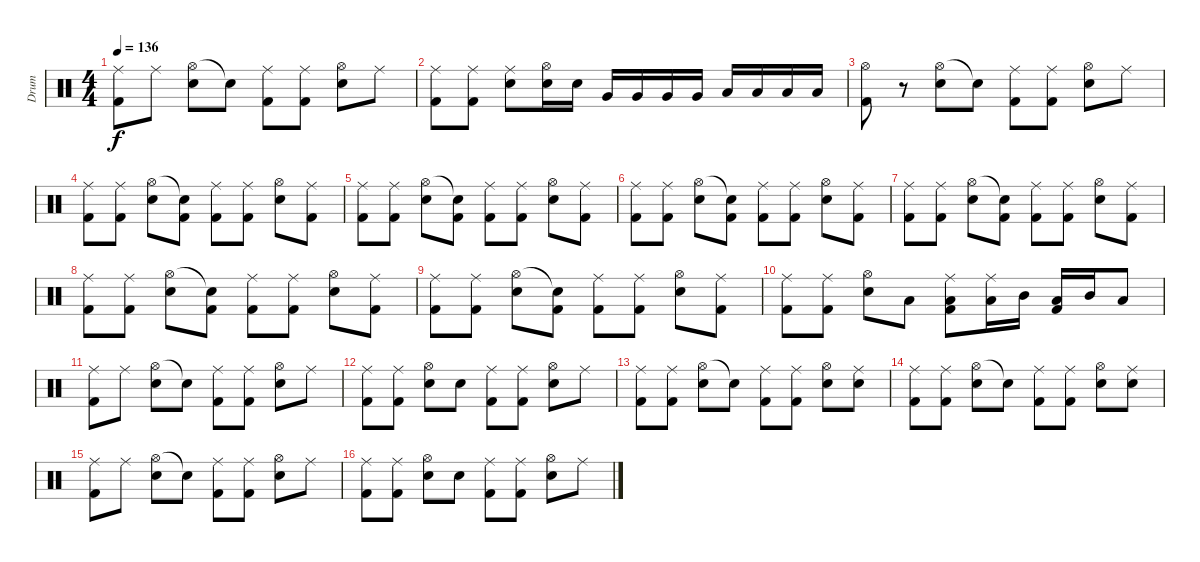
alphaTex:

\track ("Drum" "Drum") {instrument percussion}
\staff {score}
\articulation defaults
\ts (4 4)
\tempo 136
\clef neutral
\ks c
("Ride (middle)" "Kick (hit) 2").8{dy f} "Ride (middle)".8 ("Hi-Hat (open)" "Electric Snare (hit)").8 "Snare (hit)"{t}.8 ("Ride (middle)" "Kick (hit) 2").8 ("Ride (middle)" "Kick (hit) 2").8 ("Hi-Hat (open)" "Electric Snare (hit)").8 "Ride (middle)".8 |
("Ride (middle)" "Kick (hit) 2").8 ("Ride (middle)" "Kick (hit) 2").8 ("Ride (middle)" "Electric Snare (hit)").8 ("Hi-Hat (open)" "Electric Snare (hit)").16 "Electric Snare (hit)".16 "Very Low Tom (hit)".16 "Very Low Tom (hit)".16 "Very Low Tom (hit)".16 "Very Low Tom (hit)".16 "Low Tom (hit)".16 "Low Tom (hit)".16 "Low Tom (hit)".16 "Low Tom (hit)".16 |
("Hi-Hat (open)" "Kick (hit) 2").8 r.8 ("Hi-Hat (open)" "Electric Snare (hit)").8 "Snare (hit)"{t}.8 ("Ride (middle)" "Kick (hit) 2").8 ("Ride (middle)" "Kick (hit) 2").8 ("Hi-Hat (open)" "Electric Snare (hit)").8 "Ride (middle)".8 |
("Ride (middle)" "Kick (hit) 2").8 ("Ride (middle)" "Kick (hit) 2").8 ("Hi-Hat (open)" "Electric Snare (hit)").8 ("Snare (hit)"{t} "Kick (hit) 2").8 ("Ride (middle)" "Kick (hit) 2").8 ("Ride (middle)" "Kick (hit) 2").8 ("Hi-Hat (open)" "Electric Snare (hit)").8 ("Ride (middle)" "Kick (hit) 2").8 |
("Ride (middle)" "Kick (hit) 2").8 ("Ride (middle)" "Kick (hit) 2").8 ("Hi-Hat (open)" "Electric Snare (hit)").8 ("Snare (hit)"{t} "Kick (hit) 2").8 ("Ride (middle)" "Kick (hit) 2").8 ("Ride (middle)" "Kick (hit) 2").8 ("Hi-Hat (open)" "Electric Snare (hit)").8 ("Ride (middle)" "Kick (hit) 2").8 |
("Ride (middle)" "Kick (hit) 2").8 ("Ride (middle)" "Kick (hit) 2").8 ("Hi-Hat (open)" "Electric Snare (hit)").8 ("Snare (hit)"{t} "Kick (hit) 2").8 ("Ride (middle)" "Kick (hit) 2").8 ("Ride (middle)" "Kick (hit) 2").8 ("Hi-Hat (open)" "Electric Snare (hit)").8 ("Ride (middle)" "Kick (hit) 2").8 |
("Ride (middle)" "Kick (hit) 2").8 ("Ride (middle)" "Kick (hit) 2").8 ("Hi-Hat (open)" "Electric Snare (hit)").8 ("Snare (hit)"{t} "Kick (hit) 2").8 ("Ride (middle)" "Kick (hit) 2").8 ("Ride (middle)" "Kick (hit) 2").8 ("Hi-Hat (open)" "Electric Snare (hit)").8 ("Ride (middle)" "Kick (hit) 2").8 |
("Ride (middle)" "Kick (hit) 2").8 ("Ride (middle)" "Kick (hit) 2").8 ("Hi-Hat (open)" "Electric Snare (hit)").8 ("Snare (hit)"{t} "Kick (hit) 2").8 ("Ride (middle)" "Kick (hit) 2").8 ("Ride (middle)" "Kick (hit) 2").8 ("Hi-Hat (open)" "Electric Snare (hit)").8 ("Ride (middle)" "Kick (hit) 2").8 |
("Ride (middle)" "Kick (hit) 2").8 ("Ride (middle)" "Kick (hit) 2").8 ("Hi-Hat (open)" "Electric Snare (hit)").8 ("Snare (hit)"{t} "Kick (hit) 2").8 ("Ride (middle)" "Kick (hit) 2").8 ("Ride (middle)" "Kick (hit) 2").8 ("Hi-Hat (open)" "Electric Snare (hit)").8 ("Ride (middle)" "Kick (hit) 2").8 |
("Ride (middle)" "Kick (hit) 2").8 ("Ride (middle)" "Kick (hit) 2").8 ("Hi-Hat (open)" "Electric Snare (hit)").8 "Low Floor Tom (hit)".8 ("Ride (middle)" "Low Floor Tom (hit)" "Kick (hit) 2").8 ("Ride (middle)" "Low Tom (hit)").16 "Mid Tom (hit)".16 ("Low Tom (hit)" "Kick (hit) 2").16 "Mid Tom (hit)".16 "Low Floor Tom (hit)".8 |
("Ride (middle)" "Kick (hit) 2").8 "Ride (middle)".8 ("Hi-Hat (open)" "Electric Snare (hit)").8 "Snare (hit)"{t}.8 ("Ride (middle)" "Kick (hit) 2").8 ("Ride (middle)" "Kick (hit) 2").8 ("Hi-Hat (open)" "Electric Snare (hit)").8 "Ride (middle)".8 |
("Ride (middle)" "Kick (hit) 2").8 ("Ride (middle)" "Kick (hit) 2").8 ("Hi-Hat (open)" "Electric Snare (hit)").8 "Electric Snare (hit)".8 ("Ride (middle)" "Kick (hit) 2").8 ("Ride (middle)" "Kick (hit) 2").8 ("Hi-Hat (open)" "Electric Snare (hit)").8 "Ride (middle)".8 |
("Ride (middle)" "Kick (hit) 2").8 ("Ride (middle)" "Kick (hit) 2").8 ("Hi-Hat (open)" "Electric Snare (hit)").8 "Snare (hit)"{t}.8 ("Ride (middle)" "Kick (hit) 2").8 ("Ride (middle)" "Kick (hit) 2").8 ("Hi-Hat (open)" "Electric Snare (hit)").8 ("Ride (middle)" "Electric Snare (hit)").8 |
("Ride (middle)" "Kick (hit) 2").8 ("Ride (middle)" "Kick (hit) 2").8 ("Hi-Hat (open)" "Electric Snare (hit)").8 "Snare (hit)"{t}.8 ("Ride (middle)" "Kick (hit) 2").8 ("Ride (middle)" "Kick (hit) 2").8 ("Hi-Hat (open)" "Electric Snare (hit)").8 ("Ride (middle)" "Electric Snare (hit)").8 |
("Ride (middle)" "Kick (hit) 2").8 "Ride (middle)".8 ("Hi-Hat (open)" "Electric Snare (hit)").8 "Snare (hit)"{t}.8 ("Ride (middle)" "Kick (hit) 2").8 ("Ride (middle)" "Kick (hit) 2").8 ("Hi-Hat (open)" "Electric Snare (hit)").8 "Ride (middle)".8 |
("Ride (middle)" "Kick (hit) 2").8 ("Ride (middle)" "Kick (hit) 2").8 ("Hi-Hat (open)" "Electric Snare (hit)").8 "Electric Snare (hit)".8 ("Ride (middle)" "Kick (hit) 2").8 ("Ride (middle)" "Kick (hit) 2").8 ("Hi-Hat (open)" "Electric Snare (hit)").8 "Ride (middle)".8
